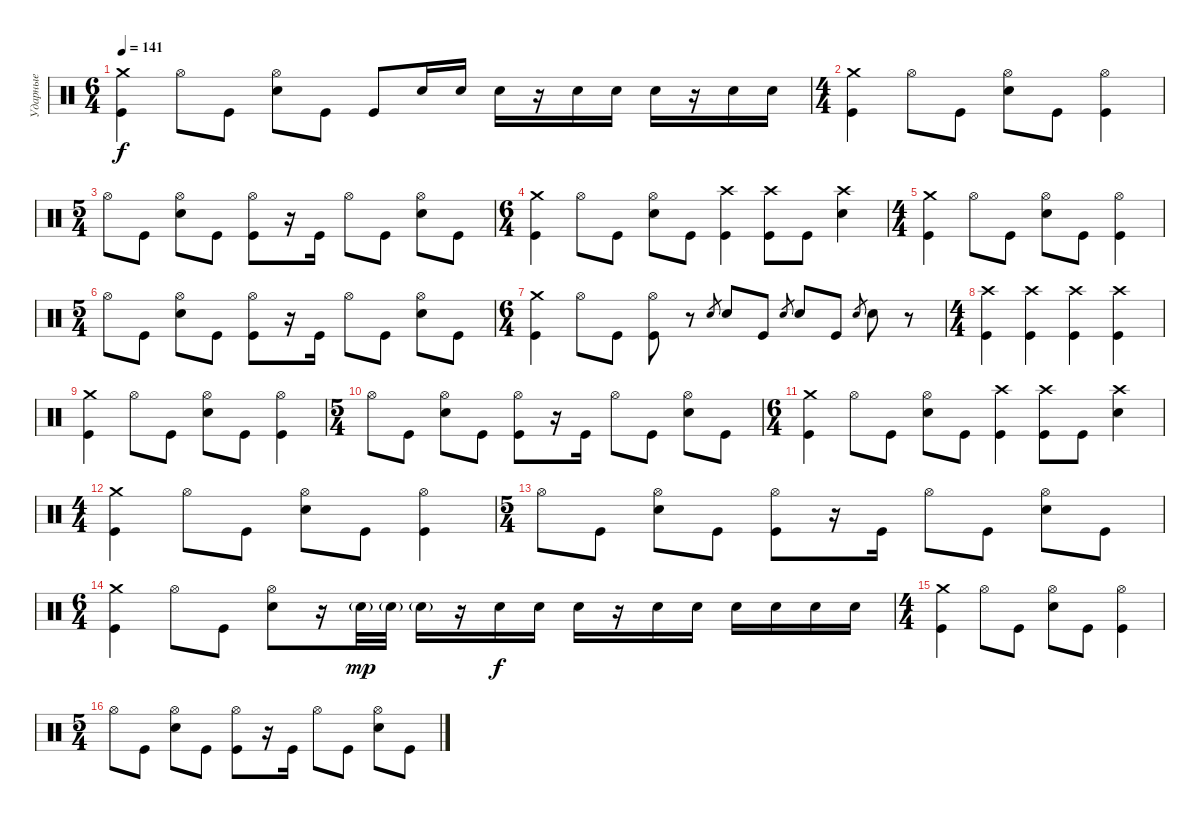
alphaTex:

\track ("Ударные" "Ударные") {instrument percussion}
\staff {score}
\articulation defaults
\ts (6 4)
\tempo 141
\clef neutral
\ks c
("Crash medium (hit)" "Kick (hit)").4{dy f} "Hi-Hat (open)".8 "Kick (hit)".8 ("Hi-Hat (open)" "Electric Snare (hit)").8 "Kick (hit)".8 "Kick (hit)".8 "Electric Snare (hit)".16 "Electric Snare (hit)".16 "Electric Snare (hit)".16 r.16 "Electric Snare (hit)".16 "Electric Snare (hit)".16 "Electric Snare (hit)".16 r.16 "Electric Snare (hit)".16 "Electric Snare (hit)".16 |
\ts (4 4)
("Crash medium (hit)" "Kick (hit)").4 "Hi-Hat (open)".8 "Kick (hit)".8 ("Hi-Hat (open)" "Electric Snare (hit)").8 "Kick (hit)".8 ("Hi-Hat (open)" "Kick (hit)").4 |
\ts (5 4)
"Hi-Hat (open)".8 "Kick (hit)".8 ("Hi-Hat (open)" "Electric Snare (hit)").8 "Kick (hit)".8 ("Hi-Hat (open)" "Kick (hit)").8 r.16 "Kick (hit)".16 "Hi-Hat (open)".8 "Kick (hit)".8 ("Hi-Hat (open)" "Electric Snare (hit)").8 "Kick (hit)".8 |
\ts (6 4)
("Crash medium (hit)" "Kick (hit)").4 "Hi-Hat (open)".8 "Kick (hit)".8 ("Hi-Hat (open)" "Electric Snare (hit)").8 "Kick (hit)".8 ("Crash high (hit)" "Kick (hit)").4 ("Crash high (hit)" "Kick (hit)").8 "Kick (hit)".8 ("Crash high (hit)" "Electric Snare (hit)").4 |
\ts (4 4)
("Crash medium (hit)" "Kick (hit)").4 "Hi-Hat (open)".8 "Kick (hit)".8 ("Hi-Hat (open)" "Electric Snare (hit)").8 "Kick (hit)".8 ("Hi-Hat (open)" "Kick (hit)").4 |
\ts (5 4)
"Hi-Hat (open)".8 "Kick (hit)".8 ("Hi-Hat (open)" "Electric Snare (hit)").8 "Kick (hit)".8 ("Hi-Hat (open)" "Kick (hit)").8 r.16 "Kick (hit)".16 "Hi-Hat (open)".8 "Kick (hit)".8 ("Hi-Hat (open)" "Electric Snare (hit)").8 "Kick (hit)".8 |
\ts (6 4)
("Crash medium (hit)" "Kick (hit)").4 "Hi-Hat (open)".8 "Kick (hit)".8 ("Hi-Hat (open)" "Kick (hit)").8 r.8 "Electric Snare (hit)".8{gr} "Electric Snare (hit)".8 "Kick (hit)".8 "Electric Snare (hit)".8{gr} "Electric Snare (hit)".8 "Kick (hit)".8 "Electric Snare (hit)".8{gr} "Electric Snare (hit)".8 r.8 |
\ts (4 4)
("Crash high (hit)" "Kick (hit)").4 ("Crash high (hit)" "Kick (hit)").4 ("Crash high (hit)" "Kick (hit)").4 ("Crash high (hit)" "Kick (hit)").4 |
("Crash medium (hit)" "Kick (hit)").4 "Hi-Hat (open)".8 "Kick (hit)".8 ("Hi-Hat (open)" "Electric Snare (hit)").8 "Kick (hit)".8 ("Hi-Hat (open)" "Kick (hit)").4 |
\ts (5 4)
"Hi-Hat (open)".8 "Kick (hit)".8 ("Hi-Hat (open)" "Electric Snare (hit)").8 "Kick (hit)".8 ("Hi-Hat (open)" "Kick (hit)").8 r.16 "Kick (hit)".16 "Hi-Hat (open)".8 "Kick (hit)".8 ("Hi-Hat (open)" "Electric Snare (hit)").8 "Kick (hit)".8 |
\ts (6 4)
("Crash medium (hit)" "Kick (hit)").4 "Hi-Hat (open)".8 "Kick (hit)".8 ("Hi-Hat (open)" "Electric Snare (hit)").8 "Kick (hit)".8 ("Crash high (hit)" "Kick (hit)").4 ("Crash high (hit)" "Kick (hit)").8 "Kick (hit)".8 ("Crash high (hit)" "Electric Snare (hit)").4 |
\ts (4 4)
("Crash medium (hit)" "Kick (hit)").4 "Hi-Hat (open)".8 "Kick (hit)".8 ("Hi-Hat (open)" "Electric Snare (hit)").8 "Kick (hit)".8 ("Hi-Hat (open)" "Kick (hit)").4 |
\ts (5 4)
"Hi-Hat (open)".8 "Kick (hit)".8 ("Hi-Hat (open)" "Electric Snare (hit)").8 "Kick (hit)".8 ("Hi-Hat (open)" "Kick (hit)").8 r.16 "Kick (hit)".16 "Hi-Hat (open)".8 "Kick (hit)".8 ("Hi-Hat (open)" "Electric Snare (hit)").8 "Kick (hit)".8 |
\ts (6 4)
("Crash medium (hit)" "Kick (hit)").4 "Hi-Hat (open)".8 "Kick (hit)".8 ("Hi-Hat (open)" "Electric Snare (hit)").8 r.16 "Electric Snare (hit)"{g}.32{dy mp} "Electric Snare (hit)"{g}.32 "Electric Snare (hit)"{g}.16 r.16 "Electric Snare (hit)".16{dy f} "Electric Snare (hit)".16 "Electric Snare (hit)".16 r.16 "Electric Snare (hit)".16 "Electric Snare (hit)".16 "Electric Snare (hit)".16 "Electric Snare (hit)".16 "Electric Snare (hit)".16 "Electric Snare (hit)".16 |
\ts (4 4)
("Crash medium (hit)" "Kick (hit)").4 "Hi-Hat (open)".8 "Kick (hit)".8 ("Hi-Hat (open)" "Electric Snare (hit)").8 "Kick (hit)".8 ("Hi-Hat (open)" "Kick (hit)").4 |
\ts (5 4)
"Hi-Hat (open)".8 "Kick (hit)".8 ("Hi-Hat (open)" "Electric Snare (hit)").8 "Kick (hit)".8 ("Hi-Hat (open)" "Kick (hit)").8 r.16 "Kick (hit)".16 "Hi-Hat (open)".8 "Kick (hit)".8 ("Hi-Hat (open)" "Electric Snare (hit)").8 "Kick (hit)".8
